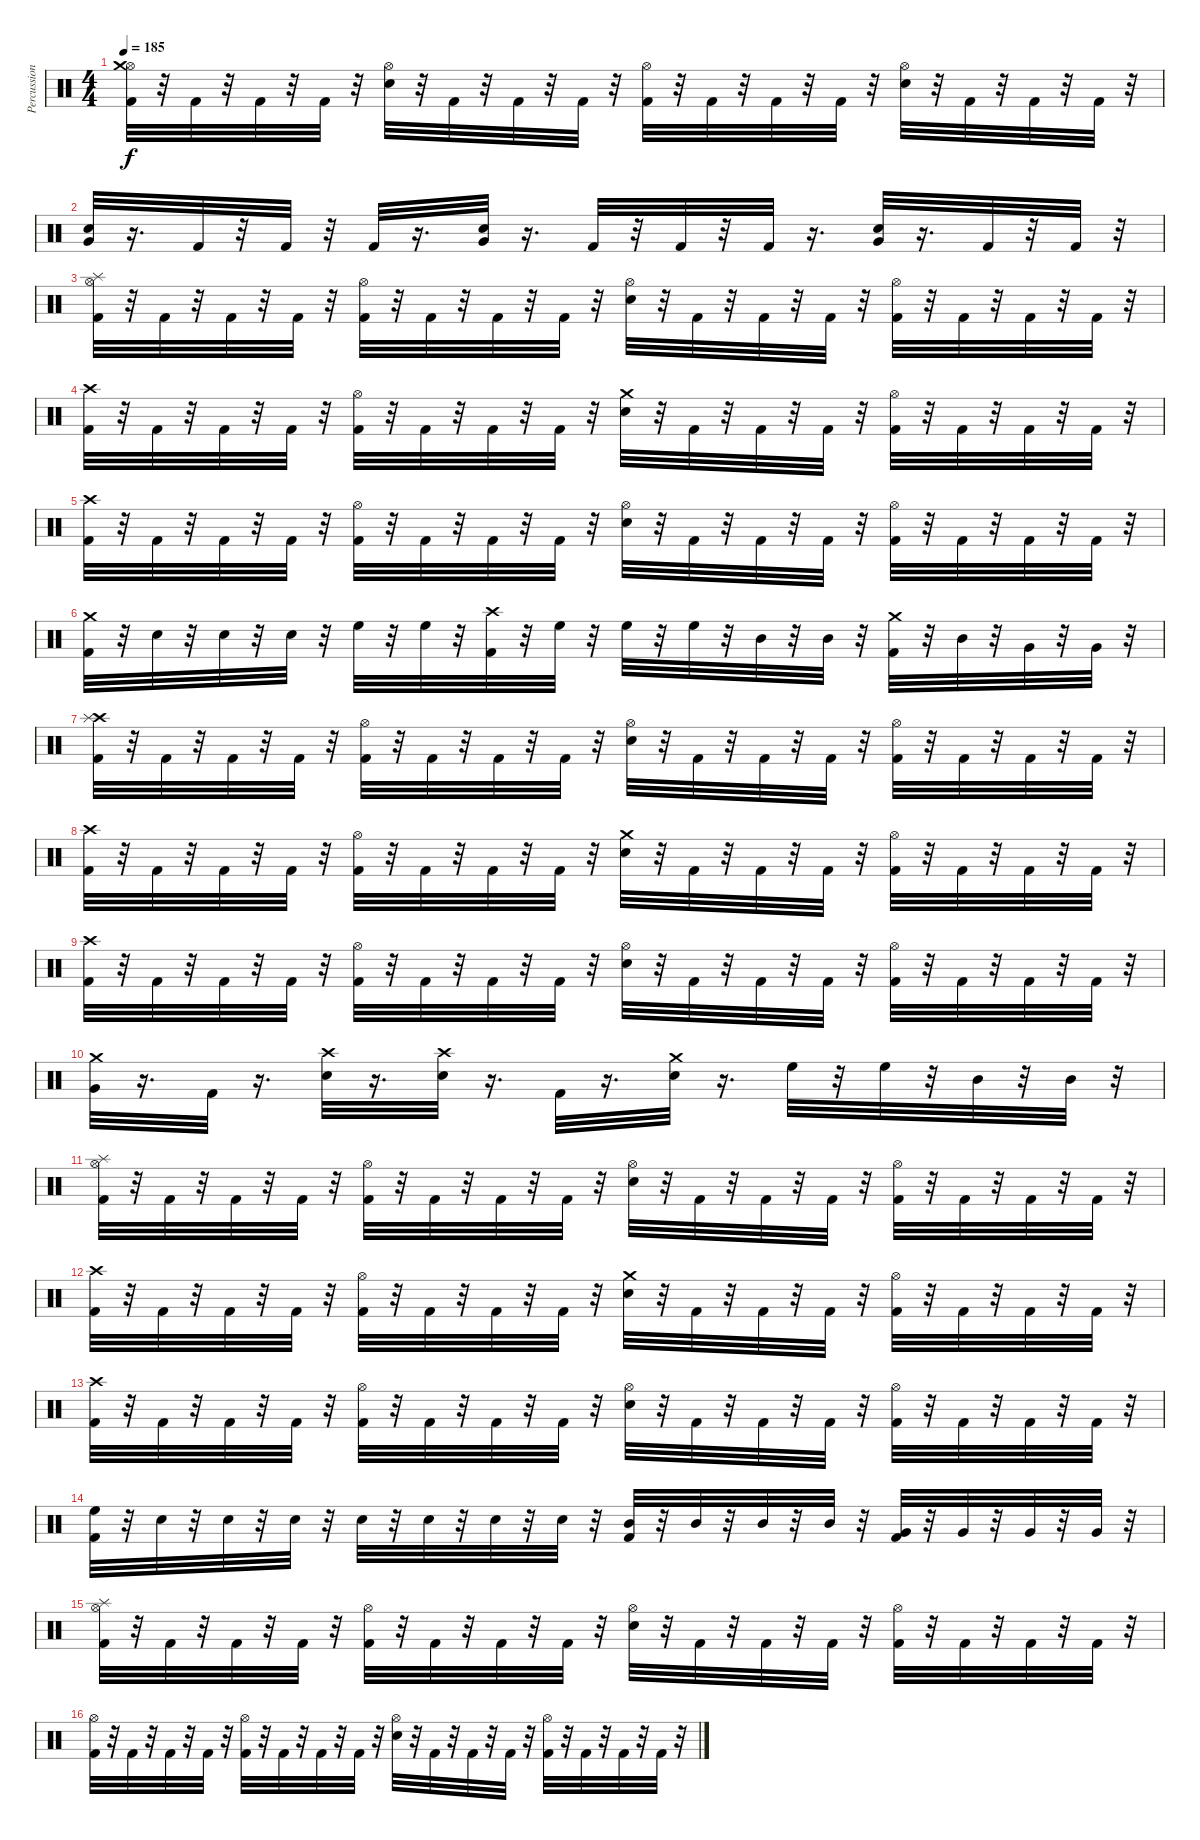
\track ("Percussion" "Percussion") {instrument percussion}
\staff {score}
\articulation defaults
\ts (4 4)
\tempo 185
\clef neutral
\ks c
("Kick (hit) 2" "Hi-Hat (open)" "Crash medium (hit)").32{dy f} r.32 "Kick (hit) 2".32 r.32 "Kick (hit) 2".32 r.32 "Kick (hit) 2".32 r.32 ("Snare (hit) 2" "Hi-Hat (open)").32 r.32 "Kick (hit) 2".32 r.32 "Kick (hit) 2".32 r.32 "Kick (hit) 2".32 r.32 ("Kick (hit) 2" "Hi-Hat (open)").32 r.32 "Kick (hit) 2".32 r.32 "Kick (hit) 2".32 r.32 "Kick (hit) 2".32 r.32 ("Snare (hit) 2" "Hi-Hat (open)").32 r.32 "Kick (hit) 2".32 r.32 "Kick (hit) 2".32 r.32 "Kick (hit) 2".32 r.32 |
("Snare (hit) 2" "Very Low Tom (hit)").32 r.16{d} "Kick (hit) 2".32 r.32 "Kick (hit) 2".32 r.32 "Kick (hit) 2".32 r.16{d} ("Snare (hit) 2" "Very Low Tom (hit)").32 r.16{d} "Kick (hit) 2".32 r.32 "Kick (hit) 2".32 r.32 "Kick (hit) 2".32 r.16{d} ("Snare (hit) 2" "Very Low Tom (hit)").32 r.16{d} "Kick (hit) 2".32 r.32 "Kick (hit) 2".32 r.32 |
("Kick (hit) 2" "Hi-Hat (open)" "Splash (hit)").32 r.32 "Kick (hit) 2".32 r.32 "Kick (hit) 2".32 r.32 "Kick (hit) 2".32 r.32 ("Kick (hit) 2" "Hi-Hat (open)").32 r.32 "Kick (hit) 2".32 r.32 "Kick (hit) 2".32 r.32 "Kick (hit) 2".32 r.32 ("Snare (hit) 2" "Hi-Hat (open)").32 r.32 "Kick (hit) 2".32 r.32 "Kick (hit) 2".32 r.32 "Kick (hit) 2".32 r.32 ("Kick (hit) 2" "Hi-Hat (open)").32 r.32 "Kick (hit) 2".32 r.32 "Kick (hit) 2".32 r.32 "Kick (hit) 2".32 r.32 |
("Kick (hit) 2" "Crash high (hit)").32 r.32 "Kick (hit) 2".32 r.32 "Kick (hit) 2".32 r.32 "Kick (hit) 2".32 r.32 ("Kick (hit) 2" "Hi-Hat (open)").32 r.32 "Kick (hit) 2".32 r.32 "Kick (hit) 2".32 r.32 "Kick (hit) 2".32 r.32 ("Snare (hit) 2" "Crash medium (hit)").32 r.32 "Kick (hit) 2".32 r.32 "Kick (hit) 2".32 r.32 "Kick (hit) 2".32 r.32 ("Kick (hit) 2" "Hi-Hat (open)").32 r.32 "Kick (hit) 2".32 r.32 "Kick (hit) 2".32 r.32 "Kick (hit) 2".32 r.32 |
("Kick (hit) 2" "Crash high (hit)").32 r.32 "Kick (hit) 2".32 r.32 "Kick (hit) 2".32 r.32 "Kick (hit) 2".32 r.32 ("Kick (hit) 2" "Hi-Hat (open)").32 r.32 "Kick (hit) 2".32 r.32 "Kick (hit) 2".32 r.32 "Kick (hit) 2".32 r.32 ("Snare (hit) 2" "Hi-Hat (open)").32 r.32 "Kick (hit) 2".32 r.32 "Kick (hit) 2".32 r.32 "Kick (hit) 2".32 r.32 ("Kick (hit) 2" "Hi-Hat (open)").32 r.32 "Kick (hit) 2".32 r.32 "Kick (hit) 2".32 r.32 "Kick (hit) 2".32 r.32 |
("Kick (hit) 2" "Crash medium (hit)").32 r.32 "Snare (hit) 2".32 r.32 "Snare (hit) 2".32 r.32 "Snare (hit) 2".32 r.32 "High Floor Tom (hit)".32 r.32 "High Floor Tom (hit)".32 r.32 ("Kick (hit) 2" "Crash high (hit)").32 r.32 "High Floor Tom (hit)".32 r.32 "High Floor Tom (hit)".32 r.32 "High Floor Tom (hit)".32 r.32 "Mid Tom (hit)".32 r.32 "Mid Tom (hit)".32 r.32 ("Kick (hit) 2" "Crash medium (hit)").32 r.32 "Mid Tom (hit)".32 r.32 "Very Low Tom (hit)".32 r.32 "Very Low Tom (hit)".32 r.32 |
("Kick (hit) 2" "Crash high (hit)" "Splash (hit)").32 r.32 "Kick (hit) 2".32 r.32 "Kick (hit) 2".32 r.32 "Kick (hit) 2".32 r.32 ("Kick (hit) 2" "Hi-Hat (open)").32 r.32 "Kick (hit) 2".32 r.32 "Kick (hit) 2".32 r.32 "Kick (hit) 2".32 r.32 ("Snare (hit) 2" "Hi-Hat (open)").32 r.32 "Kick (hit) 2".32 r.32 "Kick (hit) 2".32 r.32 "Kick (hit) 2".32 r.32 ("Kick (hit) 2" "Hi-Hat (open)").32 r.32 "Kick (hit) 2".32 r.32 "Kick (hit) 2".32 r.32 "Kick (hit) 2".32 r.32 |
("Kick (hit) 2" "Crash high (hit)").32 r.32 "Kick (hit) 2".32 r.32 "Kick (hit) 2".32 r.32 "Kick (hit) 2".32 r.32 ("Kick (hit) 2" "Hi-Hat (open)").32 r.32 "Kick (hit) 2".32 r.32 "Kick (hit) 2".32 r.32 "Kick (hit) 2".32 r.32 ("Snare (hit) 2" "Crash medium (hit)").32 r.32 "Kick (hit) 2".32 r.32 "Kick (hit) 2".32 r.32 "Kick (hit) 2".32 r.32 ("Kick (hit) 2" "Hi-Hat (open)").32 r.32 "Kick (hit) 2".32 r.32 "Kick (hit) 2".32 r.32 "Kick (hit) 2".32 r.32 |
("Kick (hit) 2" "Crash high (hit)").32 r.32 "Kick (hit) 2".32 r.32 "Kick (hit) 2".32 r.32 "Kick (hit) 2".32 r.32 ("Kick (hit) 2" "Hi-Hat (open)").32 r.32 "Kick (hit) 2".32 r.32 "Kick (hit) 2".32 r.32 "Kick (hit) 2".32 r.32 ("Snare (hit) 2" "Hi-Hat (open)").32 r.32 "Kick (hit) 2".32 r.32 "Kick (hit) 2".32 r.32 "Kick (hit) 2".32 r.32 ("Kick (hit) 2" "Hi-Hat (open)").32 r.32 "Kick (hit) 2".32 r.32 "Kick (hit) 2".32 r.32 "Kick (hit) 2".32 r.32 |
("Very Low Tom (hit)" "Crash medium (hit)").32 r.16{d} "Kick (hit) 2".32 r.16{d} ("Snare (hit) 2" "Crash high (hit)").32 r.16{d} ("Snare (hit) 2" "Crash high (hit)").32 r.16{d} "Kick (hit) 2".32 r.16{d} ("Snare (hit) 2" "Crash medium (hit)").32 r.16{d} "High Floor Tom (hit)".32 r.32 "High Floor Tom (hit)".32 r.32 "Mid Tom (hit)".32 r.32 "Mid Tom (hit)".32 r.32 |
("Kick (hit) 2" "Hi-Hat (open)" "Splash (hit)").32 r.32 "Kick (hit) 2".32 r.32 "Kick (hit) 2".32 r.32 "Kick (hit) 2".32 r.32 ("Kick (hit) 2" "Hi-Hat (open)").32 r.32 "Kick (hit) 2".32 r.32 "Kick (hit) 2".32 r.32 "Kick (hit) 2".32 r.32 ("Snare (hit) 2" "Hi-Hat (open)").32 r.32 "Kick (hit) 2".32 r.32 "Kick (hit) 2".32 r.32 "Kick (hit) 2".32 r.32 ("Kick (hit) 2" "Hi-Hat (open)").32 r.32 "Kick (hit) 2".32 r.32 "Kick (hit) 2".32 r.32 "Kick (hit) 2".32 r.32 |
("Kick (hit) 2" "Crash high (hit)").32 r.32 "Kick (hit) 2".32 r.32 "Kick (hit) 2".32 r.32 "Kick (hit) 2".32 r.32 ("Kick (hit) 2" "Hi-Hat (open)").32 r.32 "Kick (hit) 2".32 r.32 "Kick (hit) 2".32 r.32 "Kick (hit) 2".32 r.32 ("Snare (hit) 2" "Crash medium (hit)").32 r.32 "Kick (hit) 2".32 r.32 "Kick (hit) 2".32 r.32 "Kick (hit) 2".32 r.32 ("Kick (hit) 2" "Hi-Hat (open)").32 r.32 "Kick (hit) 2".32 r.32 "Kick (hit) 2".32 r.32 "Kick (hit) 2".32 r.32 |
("Kick (hit) 2" "Crash high (hit)").32 r.32 "Kick (hit) 2".32 r.32 "Kick (hit) 2".32 r.32 "Kick (hit) 2".32 r.32 ("Kick (hit) 2" "Hi-Hat (open)").32 r.32 "Kick (hit) 2".32 r.32 "Kick (hit) 2".32 r.32 "Kick (hit) 2".32 r.32 ("Snare (hit) 2" "Hi-Hat (open)").32 r.32 "Kick (hit) 2".32 r.32 "Kick (hit) 2".32 r.32 "Kick (hit) 2".32 r.32 ("Kick (hit) 2" "Hi-Hat (open)").32 r.32 "Kick (hit) 2".32 r.32 "Kick (hit) 2".32 r.32 "Kick (hit) 2".32 r.32 |
("Kick (hit) 2" "High Floor Tom (hit)").32 r.32 "Snare (hit) 2".32 r.32 "Snare (hit) 2".32 r.32 "Snare (hit) 2".32 r.32 "Snare (hit) 2".32 r.32 "Snare (hit) 2".32 r.32 "Snare (hit) 2".32 r.32 "Snare (hit) 2".32 r.32 ("Kick (hit) 2" "Mid Tom (hit)").32 r.32 "Mid Tom (hit)".32 r.32 "Mid Tom (hit)".32 r.32 "Mid Tom (hit)".32 r.32 ("Kick (hit) 2" "Very Low Tom (hit)").32 r.32 "Very Low Tom (hit)".32 r.32 "Very Low Tom (hit)".32 r.32 "Very Low Tom (hit)".32 r.32 |
("Kick (hit) 2" "Hi-Hat (open)" "Splash (hit)").32 r.32 "Kick (hit) 2".32 r.32 "Kick (hit) 2".32 r.32 "Kick (hit) 2".32 r.32 ("Kick (hit) 2" "Hi-Hat (open)").32 r.32 "Kick (hit) 2".32 r.32 "Kick (hit) 2".32 r.32 "Kick (hit) 2".32 r.32 ("Snare (hit) 2" "Hi-Hat (open)").32 r.32 "Kick (hit) 2".32 r.32 "Kick (hit) 2".32 r.32 "Kick (hit) 2".32 r.32 ("Kick (hit) 2" "Hi-Hat (open)").32 r.32 "Kick (hit) 2".32 r.32 "Kick (hit) 2".32 r.32 "Kick (hit) 2".32 r.32 |
("Kick (hit) 2" "Hi-Hat (open)").32 r.32 "Kick (hit) 2".32 r.32 "Kick (hit) 2".32 r.32 "Kick (hit) 2".32 r.32 ("Kick (hit) 2" "Hi-Hat (open)").32 r.32 "Kick (hit) 2".32 r.32 "Kick (hit) 2".32 r.32 "Kick (hit) 2".32 r.32 ("Snare (hit) 2" "Hi-Hat (open)").32 r.32 "Kick (hit) 2".32 r.32 "Kick (hit) 2".32 r.32 "Kick (hit) 2".32 r.32 ("Kick (hit) 2" "Hi-Hat (open)").32 r.32 "Kick (hit) 2".32 r.32 "Kick (hit) 2".32 r.32 "Kick (hit) 2".32 r.32
